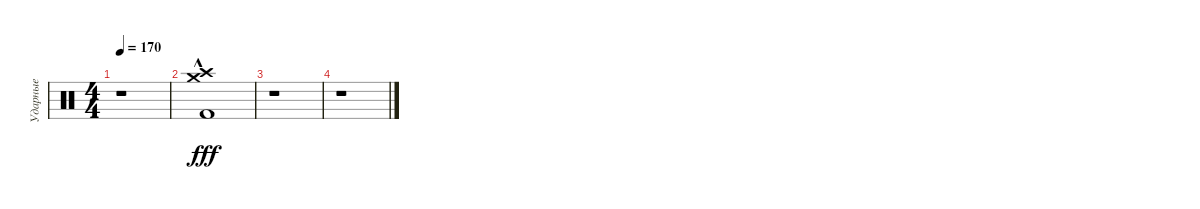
\track ("Ударные" "Ударные") {instrument percussion}
\staff {score}
\articulation defaults
\ts (4 4)
\tempo 170
\clef neutral
\ks c
r.1{dy fff} |
("Crash high (hit)"{hac} "Kick (hit) 2"{hac} "Crash medium (hit)"{hac}).1 |
r.1 |
r.1
